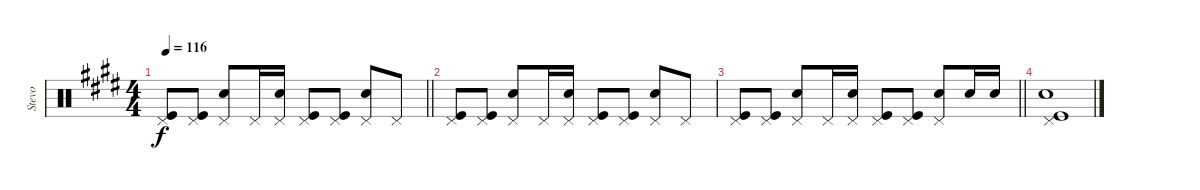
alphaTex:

\track ("Stevo" "Stevo") {instrument percussion}
\staff {score}
\articulation defaults
\ts (4 4)
\tempo 116
\clef neutral
\barLineRight lightlight
\ks e
("Kick (hit)" "Pedal Hi-Hat (hit)").8{dy f} ("Kick (hit)" "Pedal Hi-Hat (hit)").8 ("Electric Snare (hit)" "Pedal Hi-Hat (hit)").8 "Pedal Hi-Hat (hit)".16 ("Electric Snare (hit)" "Pedal Hi-Hat (hit)").16 ("Kick (hit)" "Pedal Hi-Hat (hit)").8 ("Kick (hit)" "Pedal Hi-Hat (hit)").8 ("Electric Snare (hit)" "Pedal Hi-Hat (hit)").8 "Pedal Hi-Hat (hit)".8 |
("Kick (hit)" "Pedal Hi-Hat (hit)").8 ("Kick (hit)" "Pedal Hi-Hat (hit)").8 ("Electric Snare (hit)" "Pedal Hi-Hat (hit)").8 "Pedal Hi-Hat (hit)".16 ("Electric Snare (hit)" "Pedal Hi-Hat (hit)").16 ("Kick (hit)" "Pedal Hi-Hat (hit)").8 ("Kick (hit)" "Pedal Hi-Hat (hit)").8 ("Electric Snare (hit)" "Pedal Hi-Hat (hit)").8 "Pedal Hi-Hat (hit)".8 |
\barLineRight lightlight
("Kick (hit)" "Pedal Hi-Hat (hit)").8 ("Kick (hit)" "Pedal Hi-Hat (hit)").8 ("Electric Snare (hit)" "Pedal Hi-Hat (hit)").8 "Pedal Hi-Hat (hit)".16 ("Electric Snare (hit)" "Pedal Hi-Hat (hit)").16 ("Kick (hit)" "Pedal Hi-Hat (hit)").8 ("Kick (hit)" "Pedal Hi-Hat (hit)").8 ("Electric Snare (hit)" "Pedal Hi-Hat (hit)").8 "Electric Snare (hit)".16 "Electric Snare (hit)".16 |
("Kick (hit)" "Electric Snare (hit)" "Pedal Hi-Hat (hit)").1
